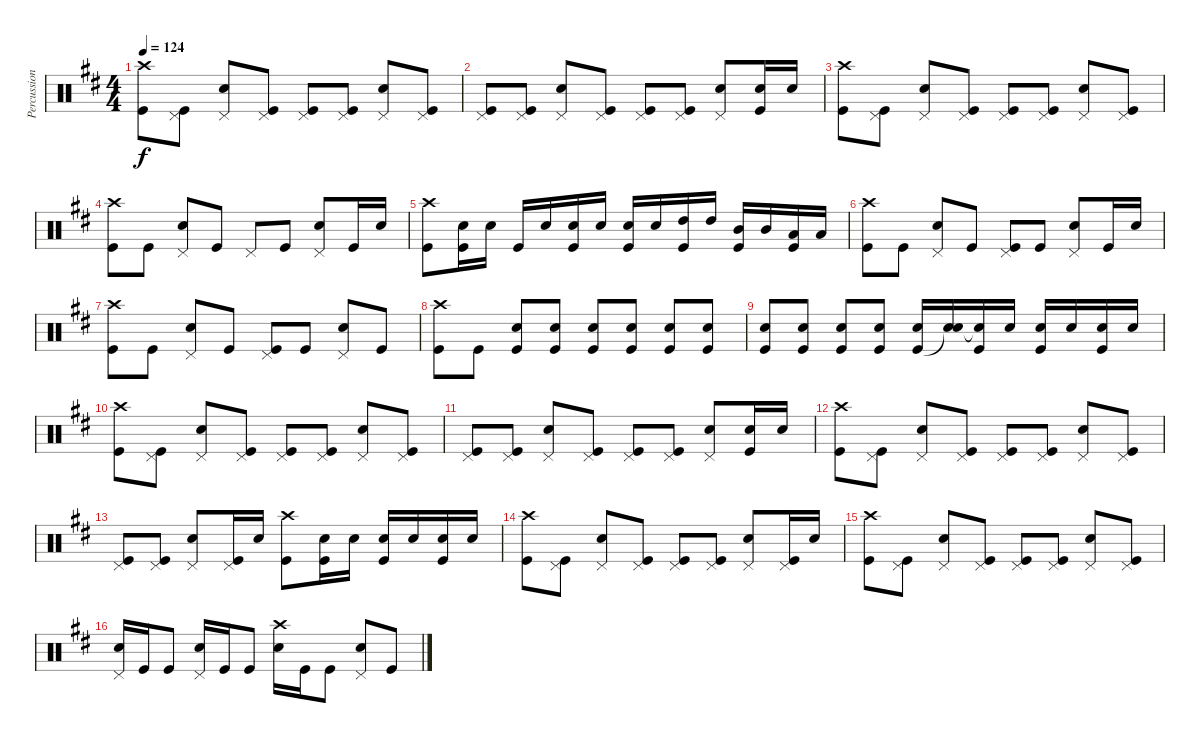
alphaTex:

\track ("Percussion" "Percussion") {instrument percussion}
\staff {score}
\articulation defaults
\ts (4 4)
\tempo 124
\clef neutral
\ks d
("Crash high (hit)" "Kick (hit)").8{dy f} ("Pedal Hi-Hat (hit)" "Kick (hit)").8 ("Pedal Hi-Hat (hit)" "Snare (hit) 2").8 ("Pedal Hi-Hat (hit)" "Kick (hit)").8 ("Pedal Hi-Hat (hit)" "Kick (hit)").8 ("Pedal Hi-Hat (hit)" "Kick (hit)").8 ("Pedal Hi-Hat (hit)" "Snare (hit) 2").8 ("Pedal Hi-Hat (hit)" "Kick (hit)").8 |
("Pedal Hi-Hat (hit)" "Kick (hit)").8 ("Pedal Hi-Hat (hit)" "Kick (hit)").8 ("Pedal Hi-Hat (hit)" "Snare (hit) 2").8 ("Pedal Hi-Hat (hit)" "Kick (hit)").8 ("Pedal Hi-Hat (hit)" "Kick (hit)").8 ("Pedal Hi-Hat (hit)" "Kick (hit)").8 ("Pedal Hi-Hat (hit)" "Snare (hit) 2").8 ("Snare (hit) 2" "Kick (hit)").16 "Snare (hit) 2".16 |
("Crash high (hit)" "Kick (hit)").8 ("Pedal Hi-Hat (hit)" "Kick (hit)").8 ("Pedal Hi-Hat (hit)" "Snare (hit) 2").8 ("Pedal Hi-Hat (hit)" "Kick (hit)").8 ("Pedal Hi-Hat (hit)" "Kick (hit)").8 ("Pedal Hi-Hat (hit)" "Kick (hit)").8 ("Pedal Hi-Hat (hit)" "Snare (hit) 2").8 ("Pedal Hi-Hat (hit)" "Kick (hit)").8 |
("Crash high (hit)" "Kick (hit)").8 "Kick (hit)".8 ("Pedal Hi-Hat (hit)" "Snare (hit) 2").8 "Kick (hit)".8 "Pedal Hi-Hat (hit)".8 "Kick (hit)".8 ("Pedal Hi-Hat (hit)" "Snare (hit) 2").8 "Kick (hit)".16 "Snare (hit) 2".16 |
("Crash high (hit)" "Kick (hit)").8 ("Snare (hit) 2" "Kick (hit)").16 "Snare (hit) 2".16 "Kick (hit)".16 "Snare (hit) 2".16 ("Snare (hit) 2" "Kick (hit)").16 "Snare (hit) 2".16 ("Snare (hit) 2" "Kick (hit)").16 "Snare (hit) 2".16 ("High Tom (hit)" "Kick (hit)").16 "High Tom (hit)".16 ("Mid Tom (hit)" "Kick (hit)").16 "Mid Tom (hit)".16 ("Low Tom (hit)" "Kick (hit)").16 "Low Tom (hit)".16 |
("Crash high (hit)" "Kick (hit)").8 "Kick (hit)".8 ("Pedal Hi-Hat (hit)" "Snare (hit) 2").8 "Kick (hit)".8 ("Pedal Hi-Hat (hit)" "Kick (hit)").8 "Kick (hit)".8 ("Pedal Hi-Hat (hit)" "Snare (hit) 2").8 "Kick (hit)".16 "Snare (hit) 2".16 |
("Crash high (hit)" "Kick (hit)").8 "Kick (hit)".8 ("Pedal Hi-Hat (hit)" "Snare (hit) 2").8 "Kick (hit)".8 ("Pedal Hi-Hat (hit)" "Kick (hit)").8 "Kick (hit)".8 ("Pedal Hi-Hat (hit)" "Snare (hit) 2").8 "Kick (hit)".8 |
("Crash high (hit)" "Kick (hit)").8 "Kick (hit)".8 ("Snare (hit) 2" "Kick (hit)").8 ("Snare (hit) 2" "Kick (hit)").8 ("Snare (hit) 2" "Kick (hit)").8 ("Snare (hit) 2" "Kick (hit)").8 ("Snare (hit) 2" "Kick (hit)").8 ("Snare (hit) 2" "Kick (hit)").8 |
("Snare (hit) 2" "Kick (hit)").8 ("Snare (hit) 2" "Kick (hit)").8 ("Snare (hit) 2" "Kick (hit)").8 ("Snare (hit) 2" "Kick (hit)").8 ("Snare (hit) 2" "Kick (hit)").16 ("Snare (hit) 2" "Snare (hit)"{t}).16 ("Snare (hit) 2"{t} "Kick (hit)").16 "Snare (hit) 2".16 ("Snare (hit) 2" "Kick (hit)").16 "Snare (hit) 2".16 ("Snare (hit) 2" "Kick (hit)").16 "Snare (hit) 2".16 |
("Crash high (hit)" "Kick (hit)").8 ("Pedal Hi-Hat (hit)" "Kick (hit)").8 ("Pedal Hi-Hat (hit)" "Snare (hit) 2").8 ("Pedal Hi-Hat (hit)" "Kick (hit)").8 ("Pedal Hi-Hat (hit)" "Kick (hit)").8 ("Pedal Hi-Hat (hit)" "Kick (hit)").8 ("Pedal Hi-Hat (hit)" "Snare (hit) 2").8 ("Pedal Hi-Hat (hit)" "Kick (hit)").8 |
("Pedal Hi-Hat (hit)" "Kick (hit)").8 ("Pedal Hi-Hat (hit)" "Kick (hit)").8 ("Pedal Hi-Hat (hit)" "Snare (hit) 2").8 ("Pedal Hi-Hat (hit)" "Kick (hit)").8 ("Pedal Hi-Hat (hit)" "Kick (hit)").8 ("Pedal Hi-Hat (hit)" "Kick (hit)").8 ("Pedal Hi-Hat (hit)" "Snare (hit) 2").8 ("Snare (hit) 2" "Kick (hit)").16 "Snare (hit) 2".16 |
("Crash high (hit)" "Kick (hit)").8 ("Pedal Hi-Hat (hit)" "Kick (hit)").8 ("Pedal Hi-Hat (hit)" "Snare (hit) 2").8 ("Pedal Hi-Hat (hit)" "Kick (hit)").8 ("Pedal Hi-Hat (hit)" "Kick (hit)").8 ("Pedal Hi-Hat (hit)" "Kick (hit)").8 ("Pedal Hi-Hat (hit)" "Snare (hit) 2").8 ("Pedal Hi-Hat (hit)" "Kick (hit)").8 |
("Pedal Hi-Hat (hit)" "Kick (hit)").8 ("Pedal Hi-Hat (hit)" "Kick (hit)").8 ("Pedal Hi-Hat (hit)" "Snare (hit) 2").8 ("Pedal Hi-Hat (hit)" "Kick (hit)").16 "Snare (hit) 2".16 ("Crash high (hit)" "Kick (hit)").8 ("Snare (hit) 2" "Kick (hit)").16 "Snare (hit) 2".16 ("Snare (hit) 2" "Kick (hit)").16 "Snare (hit) 2".16 ("Snare (hit) 2" "Kick (hit)").16 "Snare (hit) 2".16 |
("Crash high (hit)" "Kick (hit)").8 ("Pedal Hi-Hat (hit)" "Kick (hit)").8 ("Pedal Hi-Hat (hit)" "Snare (hit) 2").8 ("Pedal Hi-Hat (hit)" "Kick (hit)").8 ("Pedal Hi-Hat (hit)" "Kick (hit)").8 ("Pedal Hi-Hat (hit)" "Kick (hit)").8 ("Pedal Hi-Hat (hit)" "Snare (hit) 2").8 ("Pedal Hi-Hat (hit)" "Kick (hit)").16 "Snare (hit) 2".16 |
("Crash high (hit)" "Kick (hit)").8 ("Pedal Hi-Hat (hit)" "Kick (hit)").8 ("Pedal Hi-Hat (hit)" "Snare (hit) 2").8 ("Pedal Hi-Hat (hit)" "Kick (hit)").8 ("Pedal Hi-Hat (hit)" "Kick (hit)").8 ("Pedal Hi-Hat (hit)" "Kick (hit)").8 ("Pedal Hi-Hat (hit)" "Snare (hit) 2").8 ("Pedal Hi-Hat (hit)" "Kick (hit)").8 |
("Pedal Hi-Hat (hit)" "Snare (hit) 2").16 "Kick (hit)".16 "Kick (hit)".8 ("Pedal Hi-Hat (hit)" "Snare (hit) 2").16 "Kick (hit)".16 "Kick (hit)".8 ("Crash high (hit)" "Snare (hit) 2").16 "Kick (hit)".16 "Kick (hit)".8 ("Pedal Hi-Hat (hit)" "Snare (hit) 2").8 "Kick (hit)".8
